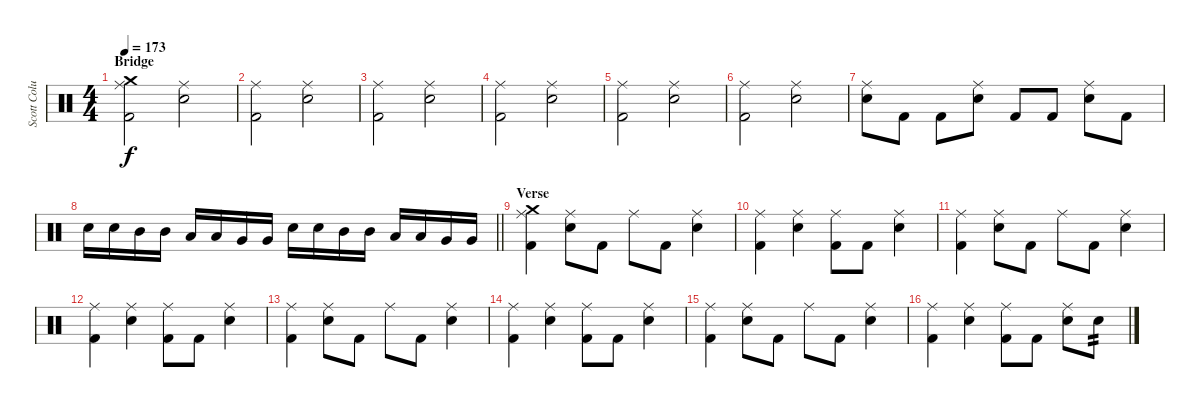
\track ("Scott Columbus" "Scott Colu") {instrument percussion}
\staff {score}
\articulation defaults
\ts (4 4)
\section ("" "Bridge")
\tempo 173
\clef neutral
\ks c
("Kick (hit) 2" "Ride (middle)" "Crash medium (hit)").2{dy f} ("Snare (hit) 2" "Ride (middle)").2 |
("Kick (hit) 2" "Ride (middle)").2 ("Snare (hit) 2" "Ride (middle)").2 |
("Kick (hit) 2" "Ride (middle)").2 ("Snare (hit) 2" "Ride (middle)").2 |
("Kick (hit) 2" "Ride (middle)").2 ("Snare (hit) 2" "Ride (middle)").2 |
("Kick (hit) 2" "Ride (middle)").2 ("Snare (hit) 2" "Ride (middle)").2 |
("Kick (hit) 2" "Ride (middle)").2 ("Snare (hit) 2" "Ride (middle)").2 |
("Snare (hit) 2" "Ride (middle)").8 "Kick (hit) 2".8 "Kick (hit) 2".8 ("Snare (hit) 2" "Ride (middle)").8 "Kick (hit) 2".8 "Kick (hit) 2".8 ("Snare (hit) 2" "Ride (middle)").8 "Kick (hit) 2".8 |
\barLineRight lightlight "Snare (hit) 2".16 "Snare (hit) 2".16 "Mid Tom (hit)".16 "Mid Tom (hit)".16 "Low Tom (hit)".16 "Low Tom (hit)".16 "Very Low Tom (hit)".16 "Very Low Tom (hit)".16 "Snare (hit) 2".16 "Snare (hit) 2".16 "Mid Tom (hit)".16 "Mid Tom (hit)".16 "Low Tom (hit)".16 "Low Tom (hit)".16 "Very Low Tom (hit)".16 "Very Low Tom (hit)".16
|
\section ("" "Verse")
("Kick (hit) 2" "Ride (middle)" "Crash medium (hit)").4 ("Snare (hit) 2" "Ride (middle)").8 "Kick (hit) 2".8 "Ride (middle)".8 "Kick (hit) 2".8 ("Snare (hit) 2" "Ride (middle)").4 |
("Kick (hit) 2" "Ride (middle)").4 ("Snare (hit) 2" "Ride (middle)").4 ("Kick (hit) 2" "Ride (middle)").8 "Kick (hit) 2".8 ("Snare (hit) 2" "Ride (middle)").4 |
("Kick (hit) 2" "Ride (middle)").4 ("Snare (hit) 2" "Ride (middle)").8 "Kick (hit) 2".8 "Ride (middle)".8 "Kick (hit) 2".8 ("Snare (hit) 2" "Ride (middle)").4 |
("Kick (hit) 2" "Ride (middle)").4 ("Snare (hit) 2" "Ride (middle)").4 ("Kick (hit) 2" "Ride (middle)").8 "Kick (hit) 2".8 ("Snare (hit) 2" "Ride (middle)").4 |
("Kick (hit) 2" "Ride (middle)").4 ("Snare (hit) 2" "Ride (middle)").8 "Kick (hit) 2".8 "Ride (middle)".8 "Kick (hit) 2".8 ("Snare (hit) 2" "Ride (middle)").4 |
("Kick (hit) 2" "Ride (middle)").4 ("Snare (hit) 2" "Ride (middle)").4 ("Kick (hit) 2" "Ride (middle)").8 "Kick (hit) 2".8 ("Snare (hit) 2" "Ride (middle)").4 |
("Kick (hit) 2" "Ride (middle)").4 ("Snare (hit) 2" "Ride (middle)").8 "Kick (hit) 2".8 "Ride (middle)".8 "Kick (hit) 2".8 ("Snare (hit) 2" "Ride (middle)").4 |
("Kick (hit) 2" "Ride (middle)").4 ("Snare (hit) 2" "Ride (middle)").4 ("Kick (hit) 2" "Ride (middle)").8 "Kick (hit) 2".8 ("Snare (hit) 2" "Ride (middle)").8 "Snare (hit) 2".8{tp 2}
